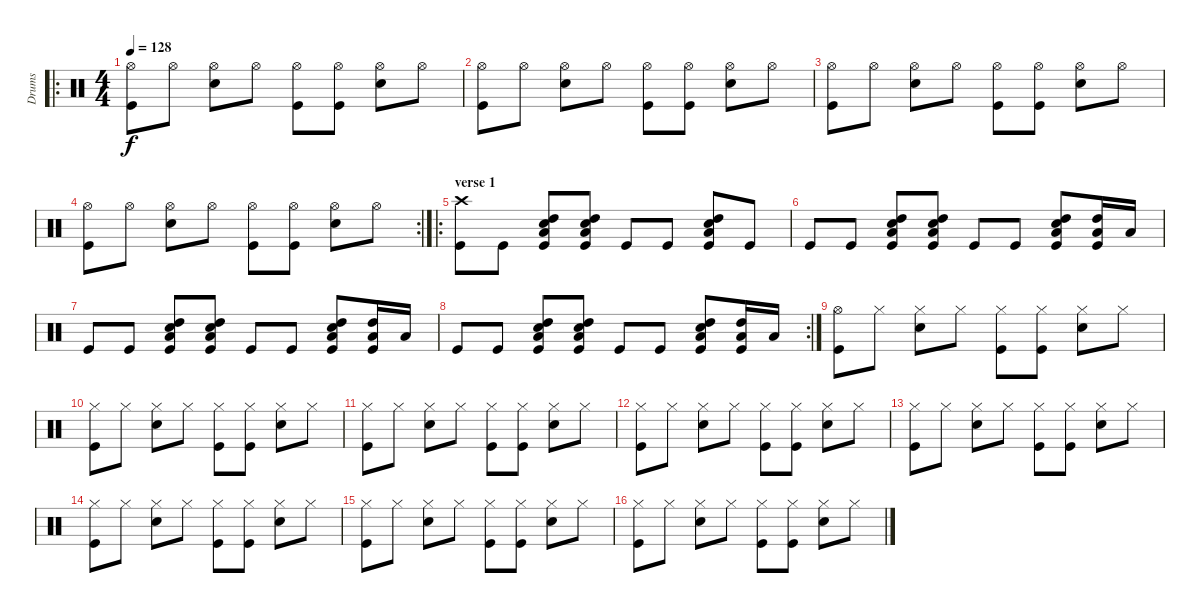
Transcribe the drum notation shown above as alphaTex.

\track ("Drums" "Drums") {instrument percussion}
\staff {score}
\articulation defaults
\ro
\ts (4 4)
\tempo 128
\clef neutral
\ks c
("Hi-Hat (open)" "Kick (hit)").8{dy f} "Hi-Hat (open)".8 ("Hi-Hat (open)" "Electric Snare (hit)").8 "Hi-Hat (open)".8 ("Hi-Hat (open)" "Kick (hit)").8 ("Hi-Hat (open)" "Kick (hit)").8 ("Hi-Hat (open)" "Electric Snare (hit)").8 "Hi-Hat (open)".8 |
("Hi-Hat (open)" "Kick (hit)").8 "Hi-Hat (open)".8 ("Hi-Hat (open)" "Electric Snare (hit)").8 "Hi-Hat (open)".8 ("Hi-Hat (open)" "Kick (hit)").8 ("Hi-Hat (open)" "Kick (hit)").8 ("Hi-Hat (open)" "Electric Snare (hit)").8 "Hi-Hat (open)".8 |
("Hi-Hat (open)" "Kick (hit)").8 "Hi-Hat (open)".8 ("Hi-Hat (open)" "Electric Snare (hit)").8 "Hi-Hat (open)".8 ("Hi-Hat (open)" "Kick (hit)").8 ("Hi-Hat (open)" "Kick (hit)").8 ("Hi-Hat (open)" "Electric Snare (hit)").8 "Hi-Hat (open)".8 |
\rc 2
("Hi-Hat (open)" "Kick (hit)").8 "Hi-Hat (open)".8 ("Hi-Hat (open)" "Electric Snare (hit)").8 "Hi-Hat (open)".8 ("Hi-Hat (open)" "Kick (hit)").8 ("Hi-Hat (open)" "Kick (hit)").8 ("Hi-Hat (open)" "Electric Snare (hit)").8 "Hi-Hat (open)".8 |
\ro
\section ("" "verse 1")
("Crash high (hit)" "Kick (hit)").8 "Kick (hit)".8 ("High Tom (hit)" "Low Tom (hit)" "Electric Snare (hit)" "Kick (hit)").8 ("High Tom (hit)" "Low Tom (hit)" "Electric Snare (hit)" "Kick (hit)").8 "Kick (hit)".8 "Kick (hit)".8 ("High Tom (hit)" "Low Tom (hit)" "Electric Snare (hit)" "Kick (hit)").8 "Kick (hit)".8 |
"Kick (hit)".8 "Kick (hit)".8 ("High Tom (hit)" "Low Tom (hit)" "Electric Snare (hit)" "Kick (hit)").8 ("High Tom (hit)" "Low Tom (hit)" "Electric Snare (hit)" "Kick (hit)").8 "Kick (hit)".8 "Kick (hit)".8 ("High Tom (hit)" "Low Tom (hit)" "Electric Snare (hit)" "Kick (hit)").8 ("High Tom (hit)" "Low Tom (hit)" "Kick (hit)").16 "Low Tom (hit)".16 |
"Kick (hit)".8 "Kick (hit)".8 ("High Tom (hit)" "Low Tom (hit)" "Electric Snare (hit)" "Kick (hit)").8 ("High Tom (hit)" "Low Tom (hit)" "Electric Snare (hit)" "Kick (hit)").8 "Kick (hit)".8 "Kick (hit)".8 ("High Tom (hit)" "Low Tom (hit)" "Electric Snare (hit)" "Kick (hit)").8 ("High Tom (hit)" "Low Tom (hit)" "Kick (hit)").16 "Low Tom (hit)".16 |
\rc 2 "Kick (hit)".8 "Kick (hit)".8
("High Tom (hit)" "Low Tom (hit)" "Electric Snare (hit)" "Kick (hit)").8 ("High Tom (hit)" "Low Tom (hit)" "Electric Snare (hit)" "Kick (hit)").8 "Kick (hit)".8 "Kick (hit)".8 ("High Tom (hit)" "Low Tom (hit)" "Electric Snare (hit)" "Kick (hit)").8 ("High Tom (hit)" "Low Tom (hit)" "Kick (hit)").16 "Low Tom (hit)".16 |
("Hi-Hat (open)" "Kick (hit)").8 "Hi-Hat (closed)".8 ("Hi-Hat (closed)" "Electric Snare (hit)").8 "Hi-Hat (closed)".8 ("Hi-Hat (closed)" "Kick (hit)").8 ("Hi-Hat (closed)" "Kick (hit)").8 ("Hi-Hat (closed)" "Electric Snare (hit)").8 "Hi-Hat (closed)".8 |
("Hi-Hat (closed)" "Kick (hit)").8 "Hi-Hat (closed)".8 ("Hi-Hat (closed)" "Electric Snare (hit)").8 "Hi-Hat (closed)".8 ("Hi-Hat (closed)" "Kick (hit)").8 ("Hi-Hat (closed)" "Kick (hit)").8 ("Hi-Hat (closed)" "Electric Snare (hit)").8 "Hi-Hat (closed)".8 |
("Hi-Hat (closed)" "Kick (hit)").8 "Hi-Hat (closed)".8 ("Hi-Hat (closed)" "Electric Snare (hit)").8 "Hi-Hat (closed)".8 ("Hi-Hat (closed)" "Kick (hit)").8 ("Hi-Hat (closed)" "Kick (hit)").8 ("Hi-Hat (closed)" "Electric Snare (hit)").8 "Hi-Hat (closed)".8 |
("Hi-Hat (closed)" "Kick (hit)").8 "Hi-Hat (closed)".8 ("Hi-Hat (closed)" "Electric Snare (hit)").8 "Hi-Hat (closed)".8 ("Hi-Hat (closed)" "Kick (hit)").8 ("Hi-Hat (closed)" "Kick (hit)").8 ("Hi-Hat (closed)" "Electric Snare (hit)").8 "Hi-Hat (closed)".8 |
("Hi-Hat (closed)" "Kick (hit)").8 "Hi-Hat (closed)".8 ("Hi-Hat (closed)" "Electric Snare (hit)").8 "Hi-Hat (closed)".8 ("Hi-Hat (closed)" "Kick (hit)").8 ("Hi-Hat (closed)" "Kick (hit)").8 ("Hi-Hat (closed)" "Electric Snare (hit)").8 "Hi-Hat (closed)".8 |
("Hi-Hat (closed)" "Kick (hit)").8 "Hi-Hat (closed)".8 ("Hi-Hat (closed)" "Electric Snare (hit)").8 "Hi-Hat (closed)".8 ("Hi-Hat (closed)" "Kick (hit)").8 ("Hi-Hat (closed)" "Kick (hit)").8 ("Hi-Hat (closed)" "Electric Snare (hit)").8 "Hi-Hat (closed)".8 |
("Hi-Hat (closed)" "Kick (hit)").8 "Hi-Hat (closed)".8 ("Hi-Hat (closed)" "Electric Snare (hit)").8 "Hi-Hat (closed)".8 ("Hi-Hat (closed)" "Kick (hit)").8 ("Hi-Hat (closed)" "Kick (hit)").8 ("Hi-Hat (closed)" "Electric Snare (hit)").8 "Hi-Hat (closed)".8 |
("Hi-Hat (closed)" "Kick (hit)").8 "Hi-Hat (closed)".8 ("Hi-Hat (closed)" "Electric Snare (hit)").8 "Hi-Hat (closed)".8 ("Hi-Hat (closed)" "Kick (hit)").8 ("Hi-Hat (closed)" "Kick (hit)").8 ("Hi-Hat (closed)" "Electric Snare (hit)").8 "Hi-Hat (closed)".8
